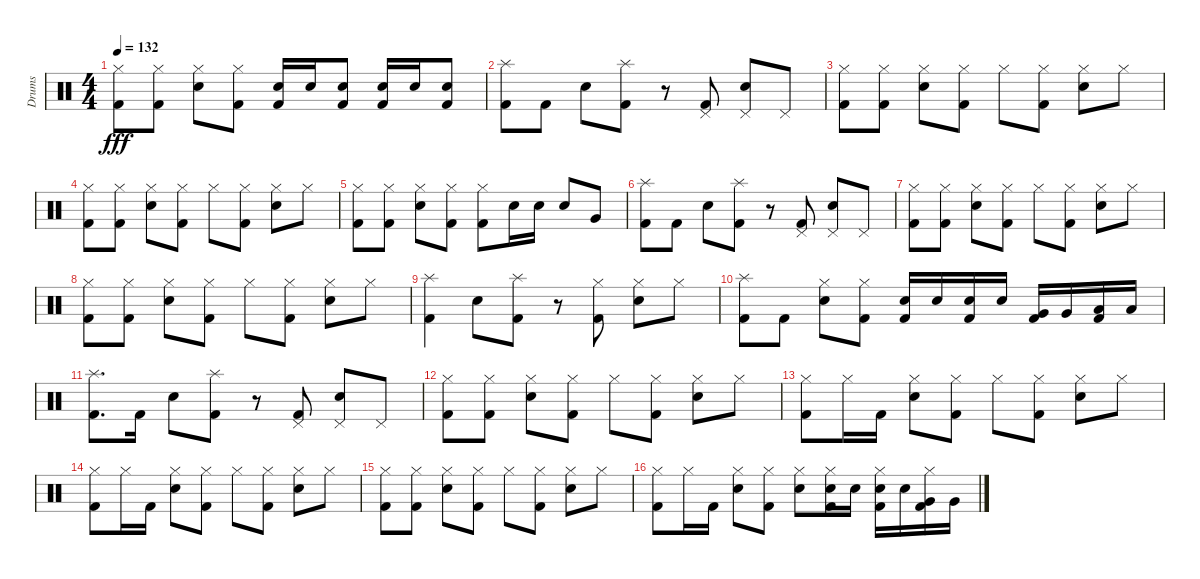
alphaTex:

\track ("Drums" "Drums") {instrument percussion}
\staff {score}
\articulation defaults
\ts (4 4)
\tempo 132
\clef neutral
\ks c
("Hi-Hat (closed)" "Kick (hit) 2").8{dy fff} ("Hi-Hat (closed)" "Kick (hit) 2").8 ("Hi-Hat (closed)" "Electric Snare (hit)").8 ("Hi-Hat (closed)" "Kick (hit) 2").8 ("Electric Snare (hit)" "Kick (hit) 2").16 "Electric Snare (hit)".16 ("Kick (hit) 2" "Electric Snare (hit)").8 ("Electric Snare (hit)" "Kick (hit) 2").16 "Electric Snare (hit)".16 ("Kick (hit) 2" "Electric Snare (hit)").8 |
("Kick (hit) 2" "Splash (hit)").8 "Kick (hit) 2".8 "Electric Snare (hit)".8 ("Splash (hit)" "Kick (hit) 2").8 r.8 ("Kick (hit) 2" "Pedal Hi-Hat (hit)").8 ("Electric Snare (hit)" "Pedal Hi-Hat (hit)").8 "Pedal Hi-Hat (hit)".8 |
("Hi-Hat (closed)" "Kick (hit) 2").8 ("Hi-Hat (closed)" "Kick (hit) 2").8 ("Hi-Hat (closed)" "Electric Snare (hit)").8 ("Hi-Hat (closed)" "Kick (hit) 2").8 "Hi-Hat (closed)".8 ("Hi-Hat (closed)" "Kick (hit) 2").8 ("Hi-Hat (closed)" "Electric Snare (hit)").8 "Hi-Hat (closed)".8 |
("Hi-Hat (closed)" "Kick (hit) 2").8 ("Hi-Hat (closed)" "Kick (hit) 2").8 ("Hi-Hat (closed)" "Electric Snare (hit)").8 ("Hi-Hat (closed)" "Kick (hit) 2").8 "Hi-Hat (closed)".8 ("Hi-Hat (closed)" "Kick (hit) 2").8 ("Hi-Hat (closed)" "Electric Snare (hit)").8 "Hi-Hat (closed)".8 |
("Hi-Hat (closed)" "Kick (hit) 2").8 ("Hi-Hat (closed)" "Kick (hit) 2").8 ("Hi-Hat (closed)" "Electric Snare (hit)").8 ("Hi-Hat (closed)" "Kick (hit) 2").8 ("Kick (hit) 2" "Hi-Hat (closed)").8 "Electric Snare (hit)".16 "Electric Snare (hit)".16 "Electric Snare (hit)".8 "Very Low Tom (hit)".8 |
("Kick (hit) 2" "Splash (hit)").8 "Kick (hit) 2".8 "Electric Snare (hit)".8 ("Splash (hit)" "Kick (hit) 2").8 r.8 ("Kick (hit) 2" "Pedal Hi-Hat (hit)").8 ("Electric Snare (hit)" "Pedal Hi-Hat (hit)").8 "Pedal Hi-Hat (hit)".8 |
("Hi-Hat (closed)" "Kick (hit) 2").8 ("Hi-Hat (closed)" "Kick (hit) 2").8 ("Hi-Hat (closed)" "Electric Snare (hit)").8 ("Hi-Hat (closed)" "Kick (hit) 2").8 "Hi-Hat (closed)".8 ("Hi-Hat (closed)" "Kick (hit) 2").8 ("Hi-Hat (closed)" "Electric Snare (hit)").8 "Hi-Hat (closed)".8 |
("Hi-Hat (closed)" "Kick (hit) 2").8 ("Hi-Hat (closed)" "Kick (hit) 2").8 ("Hi-Hat (closed)" "Electric Snare (hit)").8 ("Hi-Hat (closed)" "Kick (hit) 2").8 "Hi-Hat (closed)".8 ("Hi-Hat (closed)" "Kick (hit) 2").8 ("Hi-Hat (closed)" "Electric Snare (hit)").8 "Hi-Hat (closed)".8 |
("Splash (hit)" "Kick (hit) 2").4 "Electric Snare (hit)".8 ("Splash (hit)" "Kick (hit) 2").8 r.8 ("Kick (hit) 2" "Hi-Hat (closed)").8 ("Electric Snare (hit)" "Hi-Hat (closed)").8 "Hi-Hat (closed)".8 |
("Splash (hit)" "Kick (hit) 2").8 "Kick (hit) 2".8 ("Hi-Hat (closed)" "Electric Snare (hit)").8 ("Hi-Hat (closed)" "Kick (hit) 2").8 ("Kick (hit) 2" "Electric Snare (hit)").16 "Electric Snare (hit)".16 ("Kick (hit) 2" "Electric Snare (hit)").16 "Electric Snare (hit)".16 ("Very Low Tom (hit)" "Kick (hit) 2").16 "Very Low Tom (hit)".16 ("Low Floor Tom (hit)" "Kick (hit) 2").16 "Low Floor Tom (hit)".16 |
("Kick (hit) 2" "Splash (hit)").8{d} "Kick (hit) 2".16 "Electric Snare (hit)".8 ("Splash (hit)" "Kick (hit) 2").8 r.8 ("Kick (hit) 2" "Pedal Hi-Hat (hit)").8 ("Electric Snare (hit)" "Pedal Hi-Hat (hit)").8 "Pedal Hi-Hat (hit)".8 |
("Hi-Hat (closed)" "Kick (hit) 2").8 ("Hi-Hat (closed)" "Kick (hit) 2").8 ("Hi-Hat (closed)" "Electric Snare (hit)").8 ("Hi-Hat (closed)" "Kick (hit) 2").8 "Hi-Hat (closed)".8 ("Hi-Hat (closed)" "Kick (hit) 2").8 ("Hi-Hat (closed)" "Electric Snare (hit)").8 "Hi-Hat (closed)".8 |
("Hi-Hat (closed)" "Kick (hit) 2").8 "Hi-Hat (closed)".16 "Kick (hit) 2".16 ("Hi-Hat (closed)" "Electric Snare (hit)").8 ("Hi-Hat (closed)" "Kick (hit) 2").8 "Hi-Hat (closed)".8 ("Hi-Hat (closed)" "Kick (hit) 2").8 ("Hi-Hat (closed)" "Electric Snare (hit)").8 "Hi-Hat (closed)".8 |
("Kick (hit) 2" "Hi-Hat (closed)").8 "Hi-Hat (closed)".16 "Kick (hit) 2".16 ("Electric Snare (hit)" "Hi-Hat (closed)").8 ("Kick (hit) 2" "Hi-Hat (closed)").8 "Hi-Hat (closed)".8 ("Kick (hit) 2" "Hi-Hat (closed)").8 ("Electric Snare (hit)" "Hi-Hat (closed)").8 "Hi-Hat (closed)".8 |
("Kick (hit) 2" "Hi-Hat (closed)").8 ("Kick (hit) 2" "Hi-Hat (closed)").8 ("Electric Snare (hit)" "Hi-Hat (closed)").8 ("Kick (hit) 2" "Hi-Hat (closed)").8 "Hi-Hat (closed)".8 ("Kick (hit) 2" "Hi-Hat (closed)").8 ("Electric Snare (hit)" "Hi-Hat (closed)").8 "Hi-Hat (closed)".8 |
("Kick (hit) 2" "Hi-Hat (closed)").8 "Hi-Hat (closed)".16 "Kick (hit) 2".16 ("Electric Snare (hit)" "Hi-Hat (closed)").8 ("Kick (hit) 2" "Hi-Hat (closed)").8 ("Electric Snare (hit)" "Hi-Hat (closed)").8 ("Kick (hit) 2" "Electric Snare (hit)" "Hi-Hat (closed)").16 "Electric Snare (hit)".16 ("Hi-Hat (closed)" "Kick (hit) 2" "Electric Snare (hit)").16 "Electric Snare (hit)".16 ("Hi-Hat (closed)" "Kick (hit) 2" "Very Low Tom (hit)").16 "Very Low Tom (hit)".16
